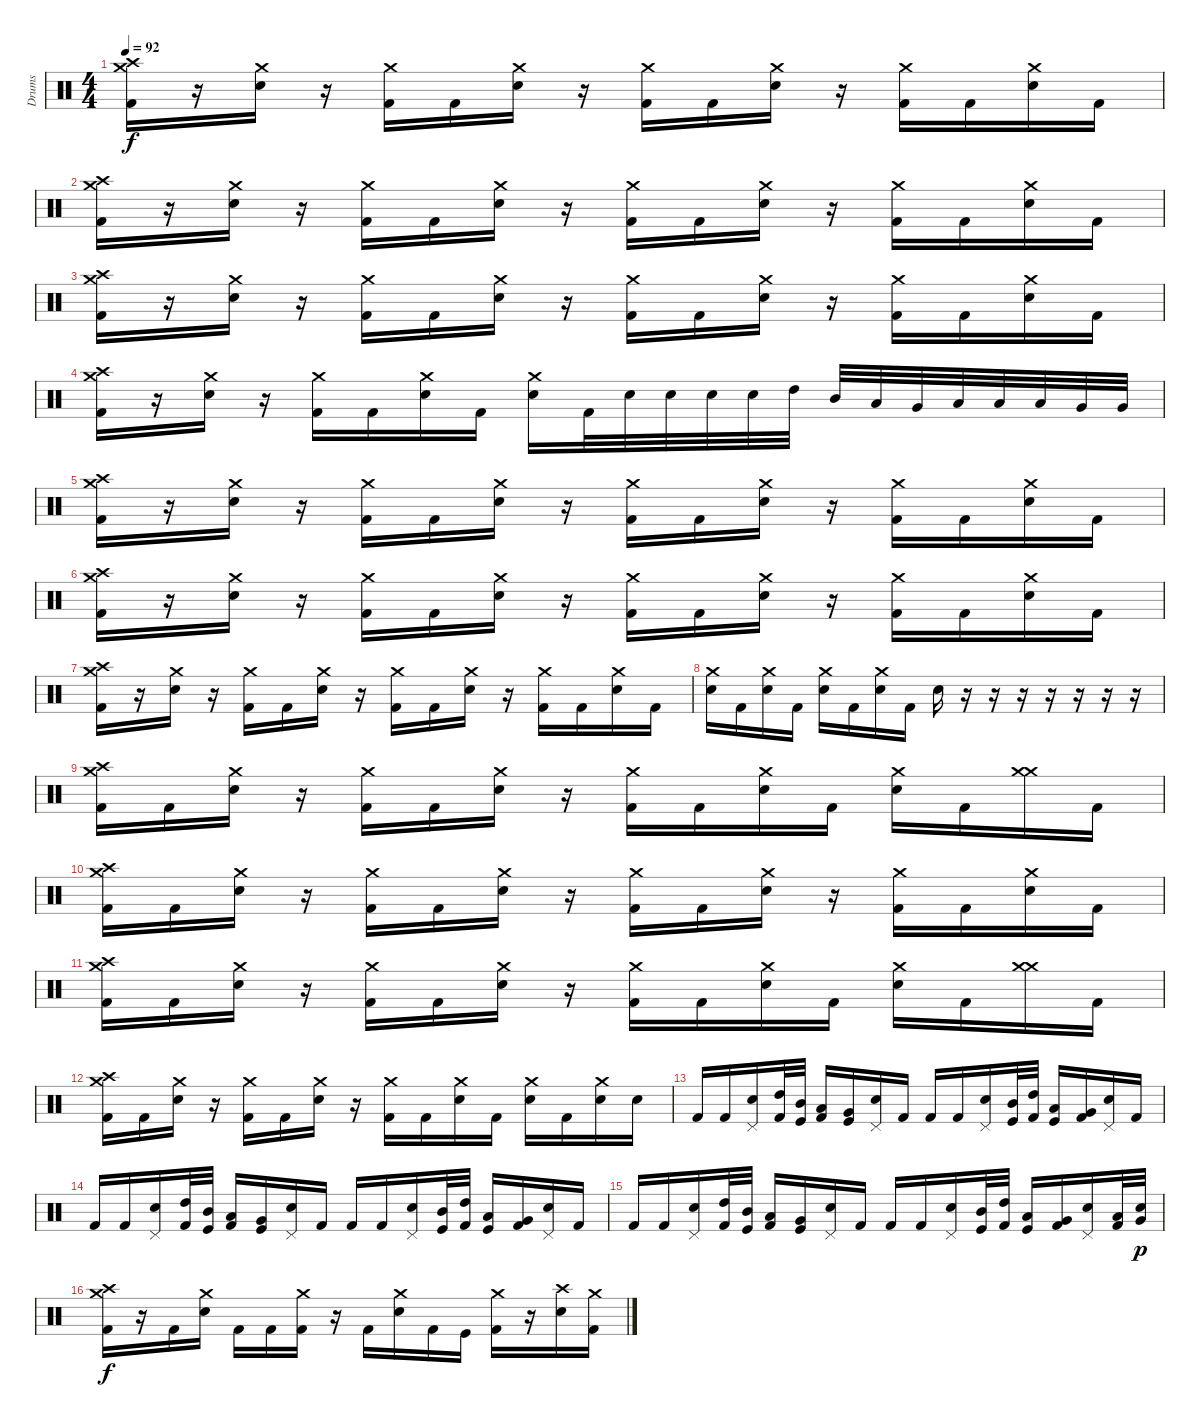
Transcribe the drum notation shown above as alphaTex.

\track ("Drums" "Drums") {instrument percussion}
\staff {score}
\articulation defaults
\ts (4 4)
\tempo 92
\clef neutral
\ks c
("Crash high (hit)" "Crash medium (hit)" "Kick (hit) 2").16{dy f} r.16 ("Crash medium (hit)" "Electric Snare (hit)").16 r.16 ("Crash medium (hit)" "Kick (hit) 2").16 "Kick (hit) 2".16 ("Crash medium (hit)" "Electric Snare (hit)").16 r.16 ("Crash medium (hit)" "Kick (hit) 2").16 "Kick (hit) 2".16 ("Crash medium (hit)" "Electric Snare (hit)").16 r.16 ("Crash medium (hit)" "Kick (hit) 2").16 "Kick (hit) 2".16 ("Crash medium (hit)" "Electric Snare (hit)").16 "Kick (hit) 2".16 |
("Crash high (hit)" "Crash medium (hit)" "Kick (hit) 2").16 r.16 ("Crash medium (hit)" "Electric Snare (hit)").16 r.16 ("Crash medium (hit)" "Kick (hit) 2").16 "Kick (hit) 2".16 ("Crash medium (hit)" "Electric Snare (hit)").16 r.16 ("Crash medium (hit)" "Kick (hit) 2").16 "Kick (hit) 2".16 ("Crash medium (hit)" "Electric Snare (hit)").16 r.16 ("Crash medium (hit)" "Kick (hit) 2").16 "Kick (hit) 2".16 ("Crash medium (hit)" "Electric Snare (hit)").16 "Kick (hit) 2".16 |
("Crash high (hit)" "Crash medium (hit)" "Kick (hit) 2").16 r.16 ("Crash medium (hit)" "Electric Snare (hit)").16 r.16 ("Crash medium (hit)" "Kick (hit) 2").16 "Kick (hit) 2".16 ("Crash medium (hit)" "Electric Snare (hit)").16 r.16 ("Crash medium (hit)" "Kick (hit) 2").16 "Kick (hit) 2".16 ("Crash medium (hit)" "Electric Snare (hit)").16 r.16 ("Crash medium (hit)" "Kick (hit) 2").16 "Kick (hit) 2".16 ("Crash medium (hit)" "Electric Snare (hit)").16 "Kick (hit) 2".16 |
("Crash high (hit)" "Crash medium (hit)" "Kick (hit) 2").16 r.16 ("Crash medium (hit)" "Electric Snare (hit)").16 r.16 ("Crash medium (hit)" "Kick (hit) 2").16 "Kick (hit) 2".16 ("Crash medium (hit)" "Electric Snare (hit)").16 "Kick (hit) 2".16 ("Crash medium (hit)" "Electric Snare (hit)").16 "Kick (hit) 2".32 "Electric Snare (hit)".32 "Electric Snare (hit)".32 "Electric Snare (hit)".32 "Electric Snare (hit)".32 "High Tom (hit)".32 "Mid Tom (hit)".32 "Low Tom (hit)".32 "Very Low Tom (hit)".32 "Low Floor Tom (hit)".32 "Low Floor Tom (hit)".32 "Low Floor Tom (hit)".32 "Very Low Tom (hit)".32 "Very Low Tom (hit)".32 |
("Crash high (hit)" "Crash medium (hit)" "Kick (hit) 2").16 r.16 ("Crash medium (hit)" "Electric Snare (hit)").16 r.16 ("Crash medium (hit)" "Kick (hit) 2").16 "Kick (hit) 2".16 ("Crash medium (hit)" "Electric Snare (hit)").16 r.16 ("Crash medium (hit)" "Kick (hit) 2").16 "Kick (hit) 2".16 ("Crash medium (hit)" "Electric Snare (hit)").16 r.16 ("Crash medium (hit)" "Kick (hit) 2").16 "Kick (hit) 2".16 ("Crash medium (hit)" "Electric Snare (hit)").16 "Kick (hit) 2".16 |
("Crash high (hit)" "Crash medium (hit)" "Kick (hit) 2").16 r.16 ("Crash medium (hit)" "Electric Snare (hit)").16 r.16 ("Crash medium (hit)" "Kick (hit) 2").16 "Kick (hit) 2".16 ("Crash medium (hit)" "Electric Snare (hit)").16 r.16 ("Crash medium (hit)" "Kick (hit) 2").16 "Kick (hit) 2".16 ("Crash medium (hit)" "Electric Snare (hit)").16 r.16 ("Crash medium (hit)" "Kick (hit) 2").16 "Kick (hit) 2".16 ("Crash medium (hit)" "Electric Snare (hit)").16 "Kick (hit) 2".16 |
("Crash high (hit)" "Crash medium (hit)" "Kick (hit) 2").16 r.16 ("Crash medium (hit)" "Electric Snare (hit)").16 r.16 ("Crash medium (hit)" "Kick (hit) 2").16 "Kick (hit) 2".16 ("Crash medium (hit)" "Electric Snare (hit)").16 r.16 ("Crash medium (hit)" "Kick (hit) 2").16 "Kick (hit) 2".16 ("Crash medium (hit)" "Electric Snare (hit)").16 r.16 ("Crash medium (hit)" "Kick (hit) 2").16 "Kick (hit) 2".16 ("Crash medium (hit)" "Electric Snare (hit)").16 "Kick (hit) 2".16 |
("Crash medium (hit)" "Electric Snare (hit)").16 "Kick (hit) 2".16 ("Crash medium (hit)" "Electric Snare (hit)").16 "Kick (hit) 2".16 ("Crash medium (hit)" "Electric Snare (hit)").16 "Kick (hit) 2".16 ("Crash medium (hit)" "Electric Snare (hit)").16 "Kick (hit) 2".16 "Electric Snare (hit)".16 r.16 r.16 r.16 r.16 r.16 r.16 r.16 |
("Crash high (hit)" "Crash medium (hit)" "Kick (hit) 2").16 "Kick (hit) 2".16 ("Crash medium (hit)" "Electric Snare (hit)").16 r.16 ("Crash medium (hit)" "Kick (hit) 2").16 "Kick (hit) 2".16 ("Crash medium (hit)" "Electric Snare (hit)").16 r.16 ("Crash medium (hit)" "Kick (hit) 2").16 "Kick (hit) 2".16 ("Crash medium (hit)" "Electric Snare (hit)").16 "Kick (hit) 2".16 ("Crash medium (hit)" "Electric Snare (hit)").16 "Kick (hit) 2".16 ("Crash medium (hit)" "Crash medium (hit)").16 "Kick (hit) 2".16 |
("Crash high (hit)" "Crash medium (hit)" "Kick (hit) 2").16 "Kick (hit) 2".16 ("Crash medium (hit)" "Electric Snare (hit)").16 r.16 ("Crash medium (hit)" "Kick (hit) 2").16 "Kick (hit) 2".16 ("Crash medium (hit)" "Electric Snare (hit)").16 r.16 ("Crash medium (hit)" "Kick (hit) 2").16 "Kick (hit) 2".16 ("Crash medium (hit)" "Electric Snare (hit)").16 r.16 ("Crash medium (hit)" "Kick (hit) 2").16 "Kick (hit) 2".16 ("Crash medium (hit)" "Electric Snare (hit)").16 "Kick (hit) 2".16 |
("Crash high (hit)" "Crash medium (hit)" "Kick (hit) 2").16 "Kick (hit) 2".16 ("Crash medium (hit)" "Electric Snare (hit)").16 r.16 ("Crash medium (hit)" "Kick (hit) 2").16 "Kick (hit) 2".16 ("Crash medium (hit)" "Electric Snare (hit)").16 r.16 ("Crash medium (hit)" "Kick (hit) 2").16 "Kick (hit) 2".16 ("Crash medium (hit)" "Electric Snare (hit)").16 "Kick (hit) 2".16 ("Crash medium (hit)" "Electric Snare (hit)").16 "Kick (hit) 2".16 ("Crash medium (hit)" "Crash medium (hit)").16 "Kick (hit) 2".16 |
("Crash high (hit)" "Crash medium (hit)" "Kick (hit) 2").16 "Kick (hit) 2".16 ("Crash medium (hit)" "Electric Snare (hit)").16 r.16 ("Crash medium (hit)" "Kick (hit) 2").16 "Kick (hit) 2".16 ("Crash medium (hit)" "Electric Snare (hit)").16 r.16 ("Crash medium (hit)" "Kick (hit) 2").16 "Kick (hit) 2".16 ("Crash medium (hit)" "Electric Snare (hit)").16 "Kick (hit) 2".16 ("Crash medium (hit)" "Electric Snare (hit)").16 "Kick (hit) 2".16 ("Crash medium (hit)" "Electric Snare (hit)").16 "Electric Snare (hit)".16 |
"Kick (hit) 2".16 "Kick (hit) 2".16 ("Pedal Hi-Hat (hit)" "Electric Snare (hit)").16 ("High Tom (hit)" "Kick (hit) 2").32 ("Mid Tom (hit)" "Kick (hit)").32 ("Low Tom (hit)" "Kick (hit) 2").16 ("Very Low Tom (hit)" "Kick (hit)").16 ("Pedal Hi-Hat (hit)" "Electric Snare (hit)").16 "Kick (hit) 2".16 "Kick (hit) 2".16 "Kick (hit) 2".16 ("Pedal Hi-Hat (hit)" "Electric Snare (hit)").16 ("Mid Tom (hit)" "Kick (hit)").32 ("High Tom (hit)" "Kick (hit) 2").32 ("Low Tom (hit)" "Kick (hit)").16 ("Very Low Tom (hit)" "Kick (hit) 2").16 ("Pedal Hi-Hat (hit)" "Electric Snare (hit)").16 "Kick (hit) 2".16 |
"Kick (hit) 2".16 "Kick (hit) 2".16 ("Pedal Hi-Hat (hit)" "Electric Snare (hit)").16 ("High Tom (hit)" "Kick (hit) 2").32 ("Mid Tom (hit)" "Kick (hit)").32 ("Low Tom (hit)" "Kick (hit) 2").16 ("Very Low Tom (hit)" "Kick (hit)").16 ("Pedal Hi-Hat (hit)" "Electric Snare (hit)").16 "Kick (hit) 2".16 "Kick (hit) 2".16 "Kick (hit) 2".16 ("Pedal Hi-Hat (hit)" "Electric Snare (hit)").16 ("Mid Tom (hit)" "Kick (hit)").32 ("High Tom (hit)" "Kick (hit) 2").32 ("Low Tom (hit)" "Kick (hit)").16 ("Very Low Tom (hit)" "Kick (hit) 2").16 ("Pedal Hi-Hat (hit)" "Electric Snare (hit)").16 "Kick (hit) 2".16 |
"Kick (hit) 2".16 "Kick (hit) 2".16 ("Pedal Hi-Hat (hit)" "Electric Snare (hit)").16 ("High Tom (hit)" "Kick (hit) 2").32 ("Mid Tom (hit)" "Kick (hit)").32 ("Low Tom (hit)" "Kick (hit) 2").16 ("Very Low Tom (hit)" "Kick (hit)").16 ("Pedal Hi-Hat (hit)" "Electric Snare (hit)").16 "Kick (hit) 2".16 "Kick (hit) 2".16 "Kick (hit) 2".16 ("Pedal Hi-Hat (hit)" "Electric Snare (hit)").16 ("Mid Tom (hit)" "Kick (hit)").32 ("High Tom (hit)" "Kick (hit) 2").32 ("Low Tom (hit)" "Kick (hit)").16 ("Very Low Tom (hit)" "Kick (hit) 2").16 ("Pedal Hi-Hat (hit)" "Electric Snare (hit)").16 ("Kick (hit) 2" "Low Tom (hit)").32 ("Electric Snare (hit)" "Very Low Tom (hit)").32{dy p} |
("Crash high (hit)" "Crash medium (hit)" "Kick (hit) 2").16{dy f} r.16 "Kick (hit) 2".16 ("Crash medium (hit)" "Electric Snare (hit)").16 "Kick (hit) 2".16 "Kick (hit) 2".16 ("Crash medium (hit)" "Kick (hit) 2").16 r.16 "Kick (hit) 2".16 ("Crash medium (hit)" "Electric Snare (hit)").16 "Kick (hit) 2".16 "Kick (hit)".16 ("Crash medium (hit)" "Kick (hit) 2").16 r.16 ("Crash high (hit)" "Electric Snare (hit)").16 ("Crash medium (hit)" "Kick (hit) 2").16
